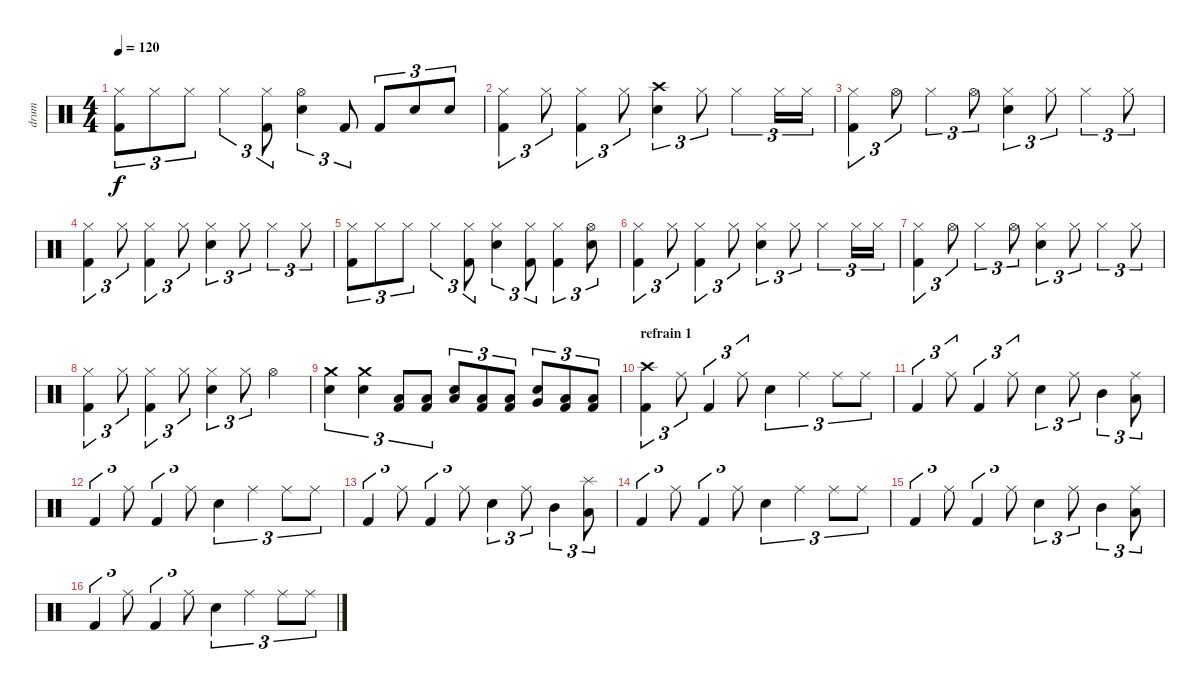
\track ("drum" "drum") {instrument percussion}
\staff {score}
\articulation defaults
\ts (4 4)
\tempo 120
\clef neutral
\ks c
("Hi-Hat (closed)" "Kick (hit) 2").8{tu (3 2) dy f} "Hi-Hat (closed)".8{tu (3 2)} "Hi-Hat (closed)".8{tu (3 2)} "Hi-Hat (closed)".4{tu (3 2)} ("Hi-Hat (closed)" "Kick (hit) 2").8{tu (3 2)} ("Hi-Hat (open)" "Electric Snare (hit)").4{tu (3 2)} "Kick (hit) 2".8{tu (3 2)} "Kick (hit) 2".8{tu (3 2)} "Electric Snare (hit)".8{tu (3 2)} "Electric Snare (hit)".8{tu (3 2)} |
("Hi-Hat (closed)" "Kick (hit) 2").4{tu (3 2)} "Hi-Hat (closed)".8{tu (3 2)} ("Hi-Hat (closed)" "Kick (hit) 2").4{tu (3 2)} "Hi-Hat (closed)".8{tu (3 2)} ("Crash high (hit)" "Electric Snare (hit)").4{tu (3 2)} "Hi-Hat (closed)".8{tu (3 2)} "Hi-Hat (closed)".4{tu (3 2)} "Hi-Hat (closed)".16{tu (3 2)} "Hi-Hat (closed)".16{tu (3 2)} |
("Hi-Hat (closed)" "Kick (hit) 2").4{tu (3 2)} "Hi-Hat (open)".8{tu (3 2)} "Hi-Hat (closed)".4{tu (3 2)} "Hi-Hat (open)".8{tu (3 2)} ("Hi-Hat (closed)" "Electric Snare (hit)").4{tu (3 2)} "Hi-Hat (closed)".8{tu (3 2)} "Hi-Hat (closed)".4{tu (3 2)} "Hi-Hat (closed)".8{tu (3 2)} |
("Hi-Hat (closed)" "Kick (hit) 2").4{tu (3 2)} "Hi-Hat (closed)".8{tu (3 2)} ("Hi-Hat (closed)" "Kick (hit) 2").4{tu (3 2)} "Hi-Hat (closed)".8{tu (3 2)} ("Hi-Hat (closed)" "Electric Snare (hit)").4{tu (3 2)} "Hi-Hat (closed)".8{tu (3 2)} "Hi-Hat (closed)".4{tu (3 2)} "Hi-Hat (closed)".8{tu (3 2)} |
("Hi-Hat (closed)" "Kick (hit) 2").8{tu (3 2)} "Hi-Hat (closed)".8{tu (3 2)} "Hi-Hat (closed)".8{tu (3 2)} "Hi-Hat (closed)".4{tu (3 2)} ("Hi-Hat (closed)" "Kick (hit) 2").8{tu (3 2)} ("Hi-Hat (closed)" "Electric Snare (hit)").4{tu (3 2)} ("Hi-Hat (closed)" "Kick (hit) 2").8{tu (3 2)} ("Hi-Hat (closed)" "Kick (hit) 2").4{tu (3 2)} ("Hi-Hat (open)" "Electric Snare (hit)").8{tu (3 2)} |
("Hi-Hat (closed)" "Kick (hit) 2").4{tu (3 2)} "Hi-Hat (closed)".8{tu (3 2)} ("Hi-Hat (closed)" "Kick (hit) 2").4{tu (3 2)} "Hi-Hat (closed)".8{tu (3 2)} ("Hi-Hat (closed)" "Electric Snare (hit)").4{tu (3 2)} "Hi-Hat (closed)".8{tu (3 2)} "Hi-Hat (closed)".4{tu (3 2)} "Hi-Hat (closed)".16{tu (3 2)} "Hi-Hat (closed)".16{tu (3 2)} |
("Hi-Hat (closed)" "Kick (hit) 2").4{tu (3 2)} "Hi-Hat (open)".8{tu (3 2)} "Hi-Hat (closed)".4{tu (3 2)} "Hi-Hat (open)".8{tu (3 2)} ("Hi-Hat (closed)" "Electric Snare (hit)").4{tu (3 2)} "Hi-Hat (closed)".8{tu (3 2)} "Hi-Hat (closed)".4{tu (3 2)} "Hi-Hat (closed)".8{tu (3 2)} |
("Hi-Hat (closed)" "Kick (hit) 2").4{tu (3 2)} "Hi-Hat (closed)".8{tu (3 2)} ("Hi-Hat (closed)" "Kick (hit) 2").4{tu (3 2)} "Hi-Hat (closed)".8{tu (3 2)} ("Hi-Hat (closed)" "Electric Snare (hit)").4{tu (3 2)} "Hi-Hat (closed)".8{tu (3 2)} "Hi-Hat (open)".4 |
("Crash medium (hit)" "Electric Snare (hit)").4{tu (3 2)} ("Crash medium (hit)" "Electric Snare (hit)").4{tu (3 2)} ("Low Tom (hit)" "Kick (hit) 2").8{tu (3 2)} ("Low Tom (hit)" "Kick (hit) 2").8{tu (3 2)} ("Low Tom (hit)" "Electric Snare (hit)").8{tu (3 2)} ("Low Tom (hit)" "Kick (hit) 2").8{tu (3 2)} ("Low Tom (hit)" "Kick (hit) 2").8{tu (3 2)} ("Very Low Tom (hit)" "Electric Snare (hit)").8{tu (3 2)} ("Low Tom (hit)" "Kick (hit) 2").8{tu (3 2)} ("Low Tom (hit)" "Kick (hit) 2").8{tu (3 2)} |
\section ("" "refrain 1")
("Crash high (hit)" "Kick (hit) 2").4{tu (3 2)} "Ride (middle)".8{tu (3 2)} "Kick (hit) 2".4{tu (3 2)} "Ride (middle)".8{tu (3 2)} "Electric Snare (hit)".4{tu (3 2)} "Ride (middle)".4{tu (3 2)} "Ride (middle)".8{tu (3 2)} "Ride (middle)".8{tu (3 2)} |
"Kick (hit) 2".4{tu (3 2)} "Ride (middle)".8{tu (3 2)} "Kick (hit) 2".4{tu (3 2)} "Ride (middle)".8{tu (3 2)} "Electric Snare (hit)".4{tu (3 2)} "Ride (middle)".8{tu (3 2)} "Mid Tom (hit)".4{tu (3 2)} ("Ride (middle)" "Low Tom (hit)").8{tu (3 2)} |
"Kick (hit) 2".4{tu (3 2)} "Ride (middle)".8{tu (3 2)} "Kick (hit) 2".4{tu (3 2)} "Ride (middle)".8{tu (3 2)} "Electric Snare (hit)".4{tu (3 2)} "Ride (middle)".4{tu (3 2)} "Ride (middle)".8{tu (3 2)} "Ride (middle)".8{tu (3 2)} |
"Kick (hit) 2".4{tu (3 2)} "Ride (middle)".8{tu (3 2)} "Kick (hit) 2".4{tu (3 2)} "Ride (middle)".8{tu (3 2)} "Electric Snare (hit)".4{tu (3 2)} "Ride (middle)".8{tu (3 2)} "Mid Tom (hit)".4{tu (3 2)} ("Splash (hit)" "Low Tom (hit)").8{tu (3 2)} |
"Kick (hit) 2".4{tu (3 2)} "Ride (middle)".8{tu (3 2)} "Kick (hit) 2".4{tu (3 2)} "Ride (middle)".8{tu (3 2)} "Electric Snare (hit)".4{tu (3 2)} "Ride (middle)".4{tu (3 2)} "Ride (middle)".8{tu (3 2)} "Ride (middle)".8{tu (3 2)} |
"Kick (hit) 2".4{tu (3 2)} "Ride (middle)".8{tu (3 2)} "Kick (hit) 2".4{tu (3 2)} "Ride (middle)".8{tu (3 2)} "Electric Snare (hit)".4{tu (3 2)} "Ride (middle)".8{tu (3 2)} "Mid Tom (hit)".4{tu (3 2)} ("Ride (middle)" "Low Tom (hit)").8{tu (3 2)} |
"Kick (hit) 2".4{tu (3 2)} "Ride (middle)".8{tu (3 2)} "Kick (hit) 2".4{tu (3 2)} "Ride (middle)".8{tu (3 2)} "Electric Snare (hit)".4{tu (3 2)} "Ride (middle)".4{tu (3 2)} "Ride (middle)".8{tu (3 2)} "Ride (middle)".8{tu (3 2)}
